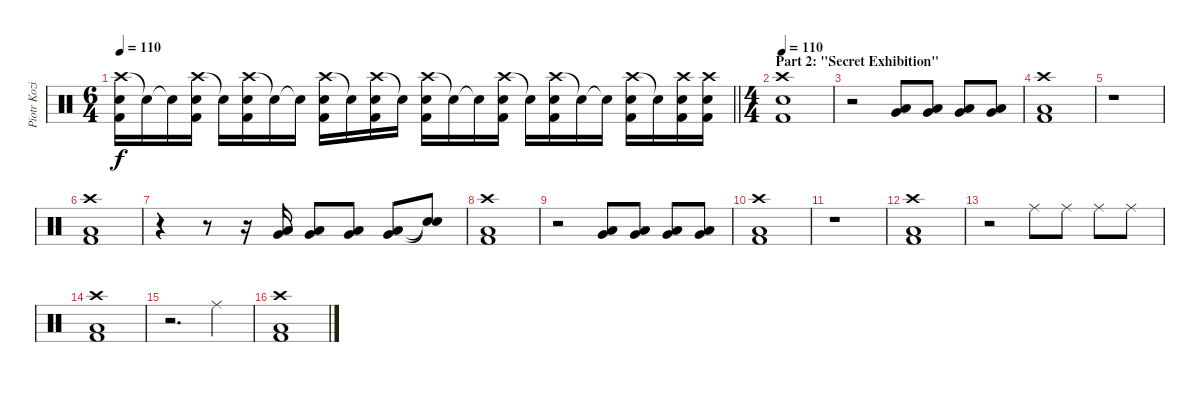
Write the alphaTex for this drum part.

\track ("Piotr Kozieradzki" "Piotr Kozi") {instrument percussion}
\staff {score}
\articulation defaults
\ts (6 4)
\tempo 110
\clef neutral
\barLineRight lightlight
\ks c
("Crash high (hit)" "Electric Snare (hit)" "Kick (hit) 2").16{dy f} "Snare (hit)"{t}.16 "Snare (hit)"{t}.16 ("Crash high (hit)" "Electric Snare (hit)" "Kick (hit) 2").16 "Snare (hit)"{t}.16 ("Crash high (hit)" "Electric Snare (hit)" "Kick (hit) 2").16 "Snare (hit)"{t}.16 "Snare (hit)"{t}.16 ("Crash high (hit)" "Electric Snare (hit)" "Kick (hit) 2").16 "Snare (hit)"{t}.16 ("Crash high (hit)" "Electric Snare (hit)" "Kick (hit) 2").16 "Electric Snare (hit)"{t}.16 ("Crash high (hit)" "Electric Snare (hit)" "Kick (hit) 2").16 "Snare (hit)"{t}.16 "Snare (hit)"{t}.16 ("Crash high (hit)" "Electric Snare (hit)" "Kick (hit) 2").16 "Snare (hit)"{t}.16 ("Crash high (hit)" "Electric Snare (hit)" "Kick (hit) 2").16 "Snare (hit)"{t}.16 "Snare (hit)"{t}.16 ("Crash high (hit)" "Electric Snare (hit)" "Kick (hit) 2").16 "Snare (hit)"{t}.16 ("Crash high (hit)" "Electric Snare (hit)" "Kick (hit) 2").16 ("Crash high (hit)" "Electric Snare (hit)" "Kick (hit) 2").16 |
\ts (4 4)
\section ("" "Part 2: \"Secret Exhibition\"")
\tempo 110
("Crash high (hit)" "Electric Snare (hit)" "Kick (hit) 2").1 |
r.2 ("Low Tom (hit)" "Very Low Tom (hit)").8 ("Low Tom (hit)" "Very Low Tom (hit)").8 ("Low Tom (hit)" "Very Low Tom (hit)").8 ("Low Tom (hit)" "Very Low Tom (hit)").8 |
("Crash high (hit)" "Low Tom (hit)" "Kick (hit) 2").1 |
r.1 |
("Crash high (hit)" "Low Tom (hit)" "Kick (hit) 2").1 |
r.4 r.8 r.16 ("Low Tom (hit)" "Very Low Tom (hit)").16 ("Low Tom (hit)" "Very Low Tom (hit)").8 ("Low Tom (hit)" "Very Low Tom (hit)").8 ("Low Tom (hit)" "Very Low Tom (hit)").8 ("Snare (hit)"{t} "Snare (hit)"{t}).8 |
("Crash high (hit)" "Low Tom (hit)" "Kick (hit) 2").1 |
r.2 ("Low Tom (hit)" "Very Low Tom (hit)").8 ("Low Tom (hit)" "Very Low Tom (hit)").8 ("Low Tom (hit)" "Very Low Tom (hit)").8 ("Low Tom (hit)" "Very Low Tom (hit)").8 |
("Crash high (hit)" "Low Tom (hit)" "Kick (hit) 2").1 |
r.1 |
("Crash high (hit)" "Low Tom (hit)" "Kick (hit) 2").1 |
r.2 "Ride (middle)".8 "Ride (middle)".8 "Ride (middle)".8 "Ride (middle)".8 |
("Crash high (hit)" "Low Tom (hit)" "Kick (hit) 2").1 |
r.2{d} "Ride (middle)".4 |
("Crash high (hit)" "Low Tom (hit)" "Kick (hit) 2").1
